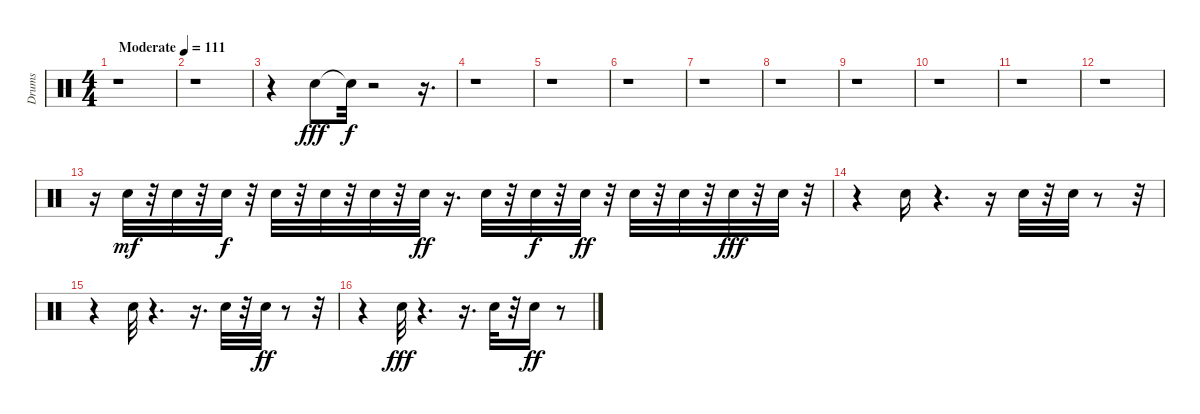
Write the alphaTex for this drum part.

\track ("Drums" "Drums") {instrument percussion}
\staff {score}
\articulation defaults
\ts (4 4)
\tempo (111 "Moderate")
\clef neutral
\ks c
r.1{dy fff} |
r.1 |
r.4 "Electric Snare (hit)".8 "Snare (hit)"{t}.32{dy f} r.2 r.16{d} |
r.1 |
r.1 |
r.1 |
r.1 |
r.1 |
r.1 |
r.1 |
r.1 |
r.1 |
r.16 "Electric Snare (hit)".32{dy mf} r.32 "Electric Snare (hit)".32 r.32 "Electric Snare (hit)".32{dy f} r.32 "Electric Snare (hit)".32 r.32 "Electric Snare (hit)".32 r.32 "Electric Snare (hit)".32 r.32 "Electric Snare (hit)".32{dy ff} r.16{d} "Electric Snare (hit)".32 r.32 "Electric Snare (hit)".32{dy f} r.32 "Electric Snare (hit)".32{dy ff} r.32 "Electric Snare (hit)".32 r.32 "Electric Snare (hit)".32 r.32 "Electric Snare (hit)".32{dy fff} r.32 "Electric Snare (hit)".32 r.32 |
r.4 "Electric Snare (hit)".16 r.4{d} r.16 "Electric Snare (hit)".32 r.32 "Electric Snare (hit)".32 r.8 r.32 |
r.4 "Electric Snare (hit)".32 r.4{d} r.16{d} "Electric Snare (hit)".32 r.32 "Electric Snare (hit)".32{dy ff} r.8 r.32 |
r.4 "Electric Snare (hit)".32{dy fff} r.4{d} r.16{d} "Electric Snare (hit)".32 r.32 "Electric Snare (hit)".16{dy ff} r.8
